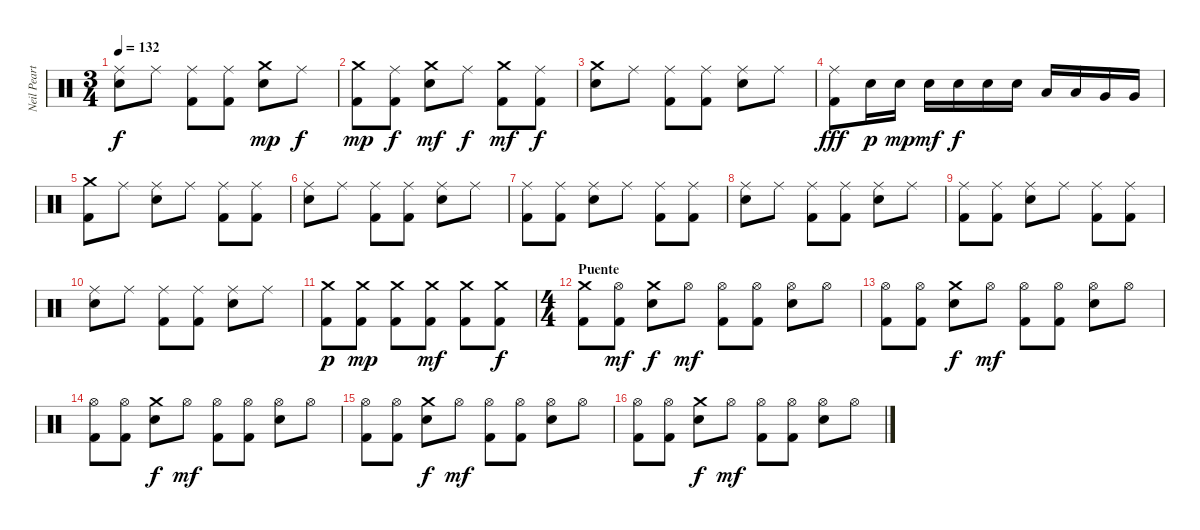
\track ("Neil Peart" "Neil Peart") {instrument percussion}
\staff {score}
\articulation defaults
\ts (3 4)
\tempo 132
\clef neutral
\ks c
("Ride (middle)" "Electric Snare (hit)").8{dy f} "Ride (middle)".8 ("Ride (middle)" "Kick (hit) 2").8 ("Ride (middle)" "Kick (hit) 2").8 ("Crash medium (hit)" "Electric Snare (hit)").8{dy mp} "Ride (middle)".8{dy f} |
("Crash medium (hit)" "Kick (hit) 2").8{dy mp} ("Ride (middle)" "Kick (hit) 2").8{dy f} ("Crash medium (hit)" "Electric Snare (hit)").8{dy mf} "Ride (middle)".8{dy f} ("Crash medium (hit)" "Kick (hit) 2").8{dy mf} ("Ride (middle)" "Kick (hit) 2").8{dy f} |
("Crash medium (hit)" "Electric Snare (hit)").8 "Ride (middle)".8 ("Ride (middle)" "Kick (hit) 2").8 ("Ride (middle)" "Kick (hit) 2").8 ("Ride (middle)" "Electric Snare (hit)").8 "Ride (middle)".8 |
("Ride (middle)" "Kick (hit) 2").8{dy fff} "Electric Snare (hit)".16{dy p} "Electric Snare (hit)".16{dy mp} "Electric Snare (hit)".16{dy mf} "Electric Snare (hit)".16{dy f} "Electric Snare (hit)".16 "Electric Snare (hit)".16 "Low Tom (hit)".16 "Low Tom (hit)".16 "Very Low Tom (hit)".16 "Very Low Tom (hit)".16 |
("Crash medium (hit)" "Kick (hit) 2").8 "Ride (middle)".8 ("Ride (middle)" "Electric Snare (hit)").8 "Ride (middle)".8 ("Ride (middle)" "Kick (hit) 2").8 ("Ride (middle)" "Kick (hit) 2").8 |
("Ride (middle)" "Electric Snare (hit)").8 "Ride (middle)".8 ("Ride (middle)" "Kick (hit) 2").8 ("Ride (middle)" "Kick (hit) 2").8 ("Ride (middle)" "Electric Snare (hit)").8 "Ride (middle)".8 |
("Ride (middle)" "Kick (hit) 2").8 ("Ride (middle)" "Kick (hit) 2").8 ("Ride (middle)" "Electric Snare (hit)").8 "Ride (middle)".8 ("Ride (middle)" "Kick (hit) 2").8 ("Ride (middle)" "Kick (hit) 2").8 |
("Ride (middle)" "Electric Snare (hit)").8 "Ride (middle)".8 ("Ride (middle)" "Kick (hit) 2").8 ("Ride (middle)" "Kick (hit) 2").8 ("Ride (middle)" "Electric Snare (hit)").8 "Ride (middle)".8 |
("Ride (middle)" "Kick (hit) 2").8 ("Ride (middle)" "Kick (hit) 2").8 ("Ride (middle)" "Electric Snare (hit)").8 "Ride (middle)".8 ("Ride (middle)" "Kick (hit) 2").8 ("Ride (middle)" "Kick (hit) 2").8 |
("Ride (middle)" "Electric Snare (hit)").8 "Ride (middle)".8 ("Ride (middle)" "Kick (hit) 2").8 ("Ride (middle)" "Kick (hit) 2").8 ("Ride (middle)" "Electric Snare (hit)").8 "Ride (middle)".8 |
("Crash medium (hit)" "Kick (hit) 2").8{dy p} ("Crash medium (hit)" "Kick (hit) 2").8{dy mp} ("Crash medium (hit)" "Kick (hit) 2").8 ("Crash medium (hit)" "Kick (hit) 2").8{dy mf} ("Crash medium (hit)" "Kick (hit) 2").8 ("Crash medium (hit)" "Kick (hit) 2").8{dy f} |
\ts (4 4)
\section ("" "Puente")
("Crash medium (hit)" "Kick (hit) 2").8 ("Hi-Hat (open)" "Kick (hit) 2").8{dy mf} ("Crash medium (hit)" "Electric Snare (hit)").8{dy f} "Hi-Hat (open)".8{dy mf} ("Hi-Hat (open)" "Kick (hit) 2").8 ("Hi-Hat (open)" "Kick (hit) 2").8 ("Hi-Hat (open)" "Electric Snare (hit)").8 "Hi-Hat (open)".8 |
("Hi-Hat (open)" "Kick (hit) 2").8 ("Hi-Hat (open)" "Kick (hit) 2").8 ("Crash medium (hit)" "Electric Snare (hit)").8{dy f} "Hi-Hat (open)".8{dy mf} ("Hi-Hat (open)" "Kick (hit) 2").8 ("Hi-Hat (open)" "Kick (hit) 2").8 ("Hi-Hat (open)" "Electric Snare (hit)").8 "Hi-Hat (open)".8 |
("Hi-Hat (open)" "Kick (hit) 2").8 ("Hi-Hat (open)" "Kick (hit) 2").8 ("Crash medium (hit)" "Electric Snare (hit)").8{dy f} "Hi-Hat (open)".8{dy mf} ("Hi-Hat (open)" "Kick (hit) 2").8 ("Hi-Hat (open)" "Kick (hit) 2").8 ("Hi-Hat (open)" "Electric Snare (hit)").8 "Hi-Hat (open)".8 |
("Hi-Hat (open)" "Kick (hit) 2").8 ("Hi-Hat (open)" "Kick (hit) 2").8 ("Crash medium (hit)" "Electric Snare (hit)").8{dy f} "Hi-Hat (open)".8{dy mf} ("Hi-Hat (open)" "Kick (hit) 2").8 ("Hi-Hat (open)" "Kick (hit) 2").8 ("Hi-Hat (open)" "Electric Snare (hit)").8 "Hi-Hat (open)".8 |
("Hi-Hat (open)" "Kick (hit) 2").8 ("Hi-Hat (open)" "Kick (hit) 2").8 ("Crash medium (hit)" "Electric Snare (hit)").8{dy f} "Hi-Hat (open)".8{dy mf} ("Hi-Hat (open)" "Kick (hit) 2").8 ("Hi-Hat (open)" "Kick (hit) 2").8 ("Hi-Hat (open)" "Electric Snare (hit)").8 "Hi-Hat (open)".8
